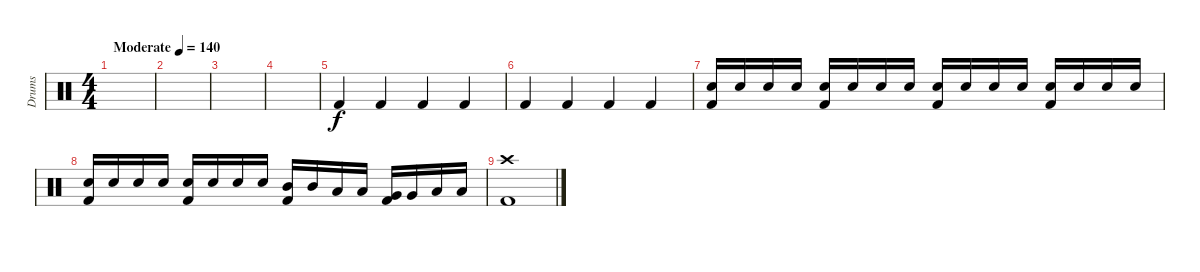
\track ("Drums" "Drums") {instrument percussion}
\staff
\articulation defaults
\ts (4 4)
\tempo (140 "Moderate")
\clef neutral
\ks c
|
|
|
|
"Kick (hit) 2".4 "Kick (hit) 2".4 "Kick (hit) 2".4 "Kick (hit) 2".4 |
"Kick (hit) 2".4 "Kick (hit) 2".4 "Kick (hit) 2".4 "Kick (hit) 2".4 |
("Electric Snare (hit)" "Kick (hit) 2").16 "Electric Snare (hit)".16 "Electric Snare (hit)".16 "Electric Snare (hit)".16 ("Electric Snare (hit)" "Kick (hit) 2").16 "Electric Snare (hit)".16 "Electric Snare (hit)".16 "Electric Snare (hit)".16 ("Electric Snare (hit)" "Kick (hit) 2").16 "Electric Snare (hit)".16 "Electric Snare (hit)".16 "Electric Snare (hit)".16 ("Electric Snare (hit)" "Kick (hit) 2").16 "Electric Snare (hit)".16 "Electric Snare (hit)".16 "Electric Snare (hit)".16 |
("Electric Snare (hit)" "Kick (hit) 2").16 "Electric Snare (hit)".16 "Electric Snare (hit)".16 "Electric Snare (hit)".16 ("Electric Snare (hit)" "Kick (hit) 2").16 "Electric Snare (hit)".16 "Electric Snare (hit)".16 "Electric Snare (hit)".16 ("Mid Tom (hit)" "Kick (hit) 2").16 "Mid Tom (hit)".16 "Low Tom (hit)".16 "Low Tom (hit)".16 ("Very Low Tom (hit)" "Kick (hit) 2").16 "Very Low Tom (hit)".16 "Low Floor Tom (hit)".16 "Low Floor Tom (hit)".16 |
("Crash high (hit)" "Kick (hit) 2").1
